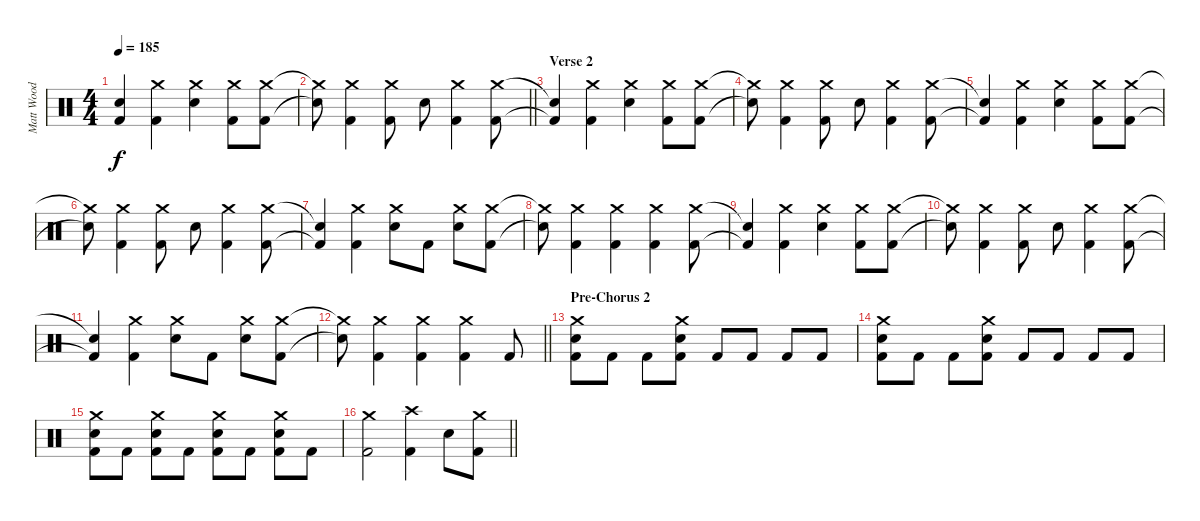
\track ("Matt Wood" "Matt Wood") {instrument percussion}
\staff {score}
\articulation defaults
\ts (4 4)
\tempo 185
\clef neutral
\ks c
("Snare (hit)"{t} "Kick (hit) 2"{t}).4{dy f} ("Crash medium (hit)" "Kick (hit) 2").4 ("Crash medium (hit)" "Snare (hit) 2").4 ("Crash medium (hit)" "Kick (hit) 2").8 ("Crash medium (hit)" "Kick (hit) 2").8 |
\barLineRight lightlight
("Crash medium (hit)"{t} "Snare (hit)"{t}).8 ("Crash medium (hit)" "Kick (hit) 2").4 ("Crash medium (hit)" "Kick (hit) 2").8 "Snare (hit) 2".8 ("Crash medium (hit)" "Kick (hit) 2").4 ("Crash medium (hit)" "Kick (hit) 2").8 |
\section ("" "Verse 2")
("Snare (hit)"{t} "Kick (hit) 2"{t}).4 ("Crash medium (hit)" "Kick (hit) 2").4 ("Crash medium (hit)" "Snare (hit) 2").4 ("Crash medium (hit)" "Kick (hit) 2").8 ("Crash medium (hit)" "Kick (hit) 2").8 |
("Crash medium (hit)"{t} "Snare (hit)"{t}).8 ("Crash medium (hit)" "Kick (hit) 2").4 ("Crash medium (hit)" "Kick (hit) 2").8 "Snare (hit) 2".8 ("Crash medium (hit)" "Kick (hit) 2").4 ("Crash medium (hit)" "Kick (hit) 2").8 |
("Snare (hit)"{t} "Kick (hit) 2"{t}).4 ("Crash medium (hit)" "Kick (hit) 2").4 ("Crash medium (hit)" "Snare (hit) 2").4 ("Crash medium (hit)" "Kick (hit) 2").8 ("Crash medium (hit)" "Kick (hit) 2").8 |
("Crash medium (hit)"{t} "Snare (hit)"{t}).8 ("Crash medium (hit)" "Kick (hit) 2").4 ("Crash medium (hit)" "Kick (hit) 2").8 "Snare (hit) 2".8 ("Crash medium (hit)" "Kick (hit) 2").4 ("Crash medium (hit)" "Kick (hit) 2").8 |
("Snare (hit)"{t} "Kick (hit) 2"{t}).4 ("Crash medium (hit)" "Kick (hit) 2").4 ("Crash medium (hit)" "Snare (hit) 2").8 "Kick (hit) 2".8 ("Crash medium (hit)" "Snare (hit) 2").8 ("Crash medium (hit)" "Kick (hit) 2").8 |
("Crash medium (hit)"{t} "Snare (hit)"{t}).8 ("Crash medium (hit)" "Kick (hit) 2").4 ("Crash medium (hit)" "Kick (hit) 2").4 ("Crash medium (hit)" "Kick (hit) 2").4 ("Crash medium (hit)" "Kick (hit) 2").8 |
("Snare (hit)"{t} "Kick (hit) 2"{t}).4 ("Crash medium (hit)" "Kick (hit) 2").4 ("Crash medium (hit)" "Snare (hit) 2").4 ("Crash medium (hit)" "Kick (hit) 2").8 ("Crash medium (hit)" "Kick (hit) 2").8 |
("Crash medium (hit)"{t} "Snare (hit)"{t}).8 ("Crash medium (hit)" "Kick (hit) 2").4 ("Crash medium (hit)" "Kick (hit) 2").8 "Snare (hit) 2".8 ("Crash medium (hit)" "Kick (hit) 2").4 ("Crash medium (hit)" "Kick (hit) 2").8 |
("Snare (hit)"{t} "Kick (hit) 2"{t}).4 ("Crash medium (hit)" "Kick (hit) 2").4 ("Crash medium (hit)" "Snare (hit) 2").8 "Kick (hit) 2".8 ("Crash medium (hit)" "Snare (hit) 2").8 ("Crash medium (hit)" "Kick (hit) 2").8 |
\barLineRight lightlight
("Crash medium (hit)"{t} "Snare (hit)"{t}).8 ("Crash medium (hit)" "Kick (hit) 2").4 ("Crash medium (hit)" "Kick (hit) 2").4 ("Crash medium (hit)" "Kick (hit) 2").4 "Kick (hit) 2".8 |
\section ("" "Pre-Chorus 2")
("Crash medium (hit)" "Snare (hit) 2" "Kick (hit) 2").8 "Kick (hit) 2".8 "Kick (hit) 2".8 ("Crash medium (hit)" "Snare (hit) 2" "Kick (hit) 2").8 "Kick (hit) 2".8 "Kick (hit) 2".8 "Kick (hit) 2".8 "Kick (hit) 2".8 |
("Crash medium (hit)" "Snare (hit) 2" "Kick (hit) 2").8 "Kick (hit) 2".8 "Kick (hit) 2".8 ("Crash medium (hit)" "Snare (hit) 2" "Kick (hit) 2").8 "Kick (hit) 2".8 "Kick (hit) 2".8 "Kick (hit) 2".8 "Kick (hit) 2".8 |
("Crash medium (hit)" "Snare (hit) 2" "Kick (hit) 2").8 "Kick (hit) 2".8 ("Crash medium (hit)" "Snare (hit) 2" "Kick (hit) 2").8 "Kick (hit) 2".8 ("Crash medium (hit)" "Snare (hit) 2" "Kick (hit) 2").8 "Kick (hit) 2".8 ("Crash medium (hit)" "Snare (hit) 2" "Kick (hit) 2").8 "Kick (hit) 2".8 |
\barLineRight lightlight
("Crash medium (hit)" "Kick (hit) 2").2 ("Crash high (hit)" "Kick (hit) 2").4 "Snare (hit) 2".8 ("Crash medium (hit)" "Kick (hit) 2").8
